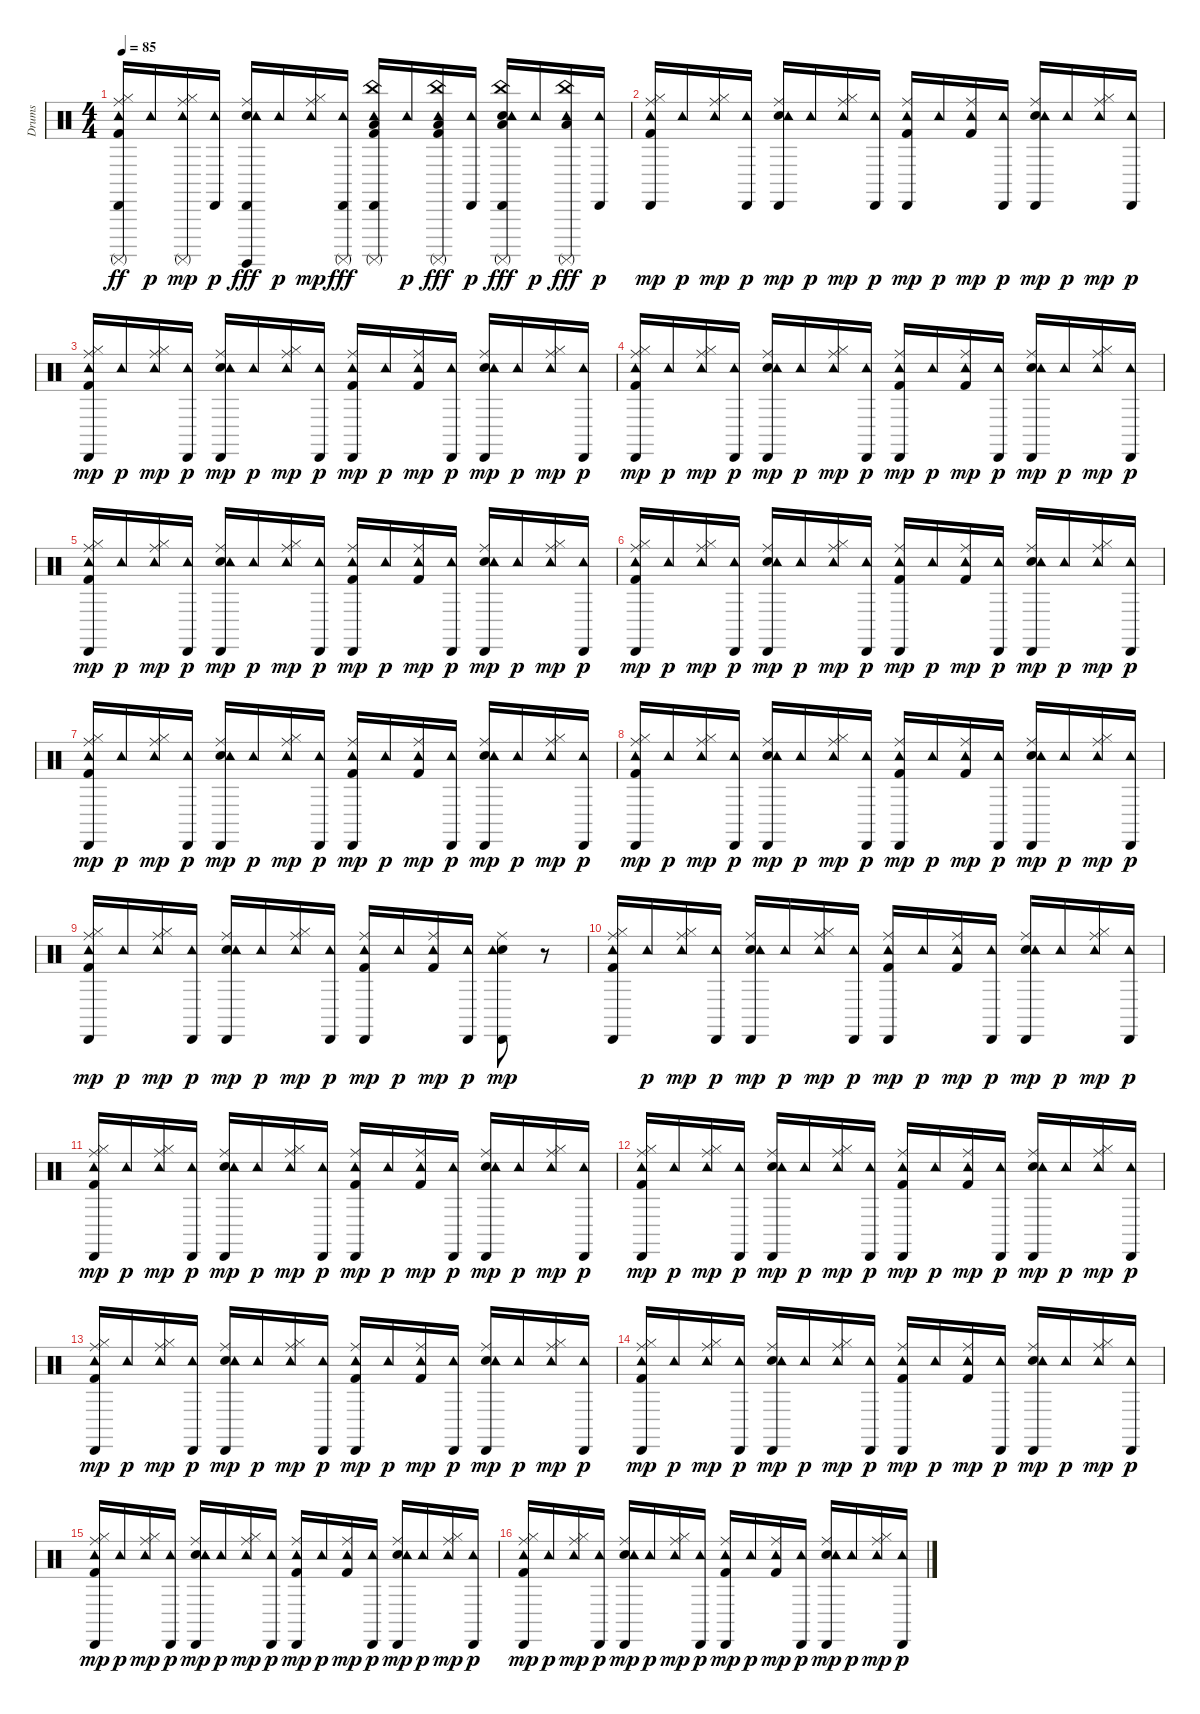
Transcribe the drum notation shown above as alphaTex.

\track ("Drums" "Drums") {instrument percussion}
\staff {score}
\articulation defaults
\ts (4 4)
\tempo 85
\clef neutral
\ks c
("Kick (hit) 2" "Hi-Hat (closed)" "Ride (middle)" "Tambourine (hit)" "Cabasa (hit)" "Surdo (mute)").16{dy ff} "Tambourine (hit)".16{dy p} ("Hi-Hat (closed)" "Ride (middle)" "Tambourine (hit)" "Surdo (mute)").16{dy mp} ("Cabasa (hit)" "Tambourine (hit)").16{dy p} ("Snare (hit) 2" "Ride (middle)" "Tambourine (hit)" "Cabasa (hit)" "Surdo (hit)").16{dy fff} "Tambourine (hit)".16{dy p} ("Hi-Hat (closed)" "Ride (middle)" "Tambourine (hit)").16{dy mp} ("Surdo (mute)" "Cabasa (hit)" "Tambourine (hit)").16{dy fff} ("Kick (hit) 2" "Low Floor Tom (hit)" "China (hit)" "Tambourine (hit)" "Cabasa (hit)" "Surdo (mute)").16 "Tambourine (hit)".16{dy p} ("Kick (hit) 2" "Low Floor Tom (hit)" "China (hit)" "Tambourine (hit)" "Surdo (mute)").16{dy fff} ("Cabasa (hit)" "Tambourine (hit)").16{dy p} ("Snare (hit) 2" "Low Floor Tom (hit)" "China (hit)" "Tambourine (hit)" "Cabasa (hit)" "Surdo (mute)").16{dy fff} "Tambourine (hit)".16{dy p} ("Low Floor Tom (hit)" "China (hit)" "Tambourine (hit)" "Surdo (mute)").16{dy fff} ("Cabasa (hit)" "Tambourine (hit)").16{dy p} |
("Kick (hit) 2" "Hi-Hat (closed)" "Ride (middle)" "Tambourine (hit)" "Cabasa (hit)").16{dy mp} "Tambourine (hit)".16{dy p} ("Hi-Hat (closed)" "Ride (middle)" "Tambourine (hit)").16{dy mp} ("Cabasa (hit)" "Tambourine (hit)").16{dy p} ("Snare (hit) 2" "Ride (middle)" "Tambourine (hit)" "Cabasa (hit)").16{dy mp} "Tambourine (hit)".16{dy p} ("Hi-Hat (closed)" "Ride (middle)" "Tambourine (hit)").16{dy mp} ("Cabasa (hit)" "Tambourine (hit)").16{dy p} ("Kick (hit) 2" "Ride (middle)" "Tambourine (hit)" "Cabasa (hit)").16{dy mp} "Tambourine (hit)".16{dy p} ("Kick (hit) 2" "Ride (middle)" "Tambourine (hit)").16{dy mp} ("Cabasa (hit)" "Tambourine (hit)").16{dy p} ("Snare (hit) 2" "Ride (middle)" "Tambourine (hit)" "Cabasa (hit)").16{dy mp} "Tambourine (hit)".16{dy p} ("Hi-Hat (closed)" "Ride (middle)" "Tambourine (hit)").16{dy mp} ("Cabasa (hit)" "Tambourine (hit)").16{dy p} |
("Kick (hit) 2" "Hi-Hat (closed)" "Ride (middle)" "Tambourine (hit)" "Cabasa (hit)").16{dy mp} "Tambourine (hit)".16{dy p} ("Hi-Hat (closed)" "Ride (middle)" "Tambourine (hit)").16{dy mp} ("Cabasa (hit)" "Tambourine (hit)").16{dy p} ("Snare (hit) 2" "Ride (middle)" "Tambourine (hit)" "Cabasa (hit)").16{dy mp} "Tambourine (hit)".16{dy p} ("Hi-Hat (closed)" "Ride (middle)" "Tambourine (hit)").16{dy mp} ("Cabasa (hit)" "Tambourine (hit)").16{dy p} ("Kick (hit) 2" "Ride (middle)" "Tambourine (hit)" "Cabasa (hit)").16{dy mp} "Tambourine (hit)".16{dy p} ("Kick (hit) 2" "Ride (middle)" "Tambourine (hit)").16{dy mp} ("Cabasa (hit)" "Tambourine (hit)").16{dy p} ("Snare (hit) 2" "Ride (middle)" "Tambourine (hit)" "Cabasa (hit)").16{dy mp} "Tambourine (hit)".16{dy p} ("Hi-Hat (closed)" "Ride (middle)" "Tambourine (hit)").16{dy mp} ("Cabasa (hit)" "Tambourine (hit)").16{dy p} |
("Kick (hit) 2" "Hi-Hat (closed)" "Ride (middle)" "Tambourine (hit)" "Cabasa (hit)").16{dy mp} "Tambourine (hit)".16{dy p} ("Hi-Hat (closed)" "Ride (middle)" "Tambourine (hit)").16{dy mp} ("Cabasa (hit)" "Tambourine (hit)").16{dy p} ("Snare (hit) 2" "Ride (middle)" "Tambourine (hit)" "Cabasa (hit)").16{dy mp} "Tambourine (hit)".16{dy p} ("Hi-Hat (closed)" "Ride (middle)" "Tambourine (hit)").16{dy mp} ("Cabasa (hit)" "Tambourine (hit)").16{dy p} ("Kick (hit) 2" "Ride (middle)" "Tambourine (hit)" "Cabasa (hit)").16{dy mp} "Tambourine (hit)".16{dy p} ("Kick (hit) 2" "Ride (middle)" "Tambourine (hit)").16{dy mp} ("Cabasa (hit)" "Tambourine (hit)").16{dy p} ("Snare (hit) 2" "Ride (middle)" "Tambourine (hit)" "Cabasa (hit)").16{dy mp} "Tambourine (hit)".16{dy p} ("Hi-Hat (closed)" "Ride (middle)" "Tambourine (hit)").16{dy mp} ("Cabasa (hit)" "Tambourine (hit)").16{dy p} |
("Kick (hit) 2" "Hi-Hat (closed)" "Ride (middle)" "Tambourine (hit)" "Cabasa (hit)").16{dy mp} "Tambourine (hit)".16{dy p} ("Hi-Hat (closed)" "Ride (middle)" "Tambourine (hit)").16{dy mp} ("Cabasa (hit)" "Tambourine (hit)").16{dy p} ("Snare (hit) 2" "Ride (middle)" "Tambourine (hit)" "Cabasa (hit)").16{dy mp} "Tambourine (hit)".16{dy p} ("Hi-Hat (closed)" "Ride (middle)" "Tambourine (hit)").16{dy mp} ("Cabasa (hit)" "Tambourine (hit)").16{dy p} ("Kick (hit) 2" "Ride (middle)" "Tambourine (hit)" "Cabasa (hit)").16{dy mp} "Tambourine (hit)".16{dy p} ("Kick (hit) 2" "Ride (middle)" "Tambourine (hit)").16{dy mp} ("Cabasa (hit)" "Tambourine (hit)").16{dy p} ("Snare (hit) 2" "Ride (middle)" "Tambourine (hit)" "Cabasa (hit)").16{dy mp} "Tambourine (hit)".16{dy p} ("Hi-Hat (closed)" "Ride (middle)" "Tambourine (hit)").16{dy mp} ("Cabasa (hit)" "Tambourine (hit)").16{dy p} |
("Kick (hit) 2" "Hi-Hat (closed)" "Ride (middle)" "Tambourine (hit)" "Cabasa (hit)").16{dy mp} "Tambourine (hit)".16{dy p} ("Hi-Hat (closed)" "Ride (middle)" "Tambourine (hit)").16{dy mp} ("Cabasa (hit)" "Tambourine (hit)").16{dy p} ("Snare (hit) 2" "Ride (middle)" "Tambourine (hit)" "Cabasa (hit)").16{dy mp} "Tambourine (hit)".16{dy p} ("Hi-Hat (closed)" "Ride (middle)" "Tambourine (hit)").16{dy mp} ("Cabasa (hit)" "Tambourine (hit)").16{dy p} ("Kick (hit) 2" "Ride (middle)" "Tambourine (hit)" "Cabasa (hit)").16{dy mp} "Tambourine (hit)".16{dy p} ("Kick (hit) 2" "Ride (middle)" "Tambourine (hit)").16{dy mp} ("Cabasa (hit)" "Tambourine (hit)").16{dy p} ("Snare (hit) 2" "Ride (middle)" "Tambourine (hit)" "Cabasa (hit)").16{dy mp} "Tambourine (hit)".16{dy p} ("Hi-Hat (closed)" "Ride (middle)" "Tambourine (hit)").16{dy mp} ("Cabasa (hit)" "Tambourine (hit)").16{dy p} |
("Kick (hit) 2" "Hi-Hat (closed)" "Ride (middle)" "Tambourine (hit)" "Cabasa (hit)").16{dy mp} "Tambourine (hit)".16{dy p} ("Hi-Hat (closed)" "Ride (middle)" "Tambourine (hit)").16{dy mp} ("Cabasa (hit)" "Tambourine (hit)").16{dy p} ("Snare (hit) 2" "Ride (middle)" "Tambourine (hit)" "Cabasa (hit)").16{dy mp} "Tambourine (hit)".16{dy p} ("Hi-Hat (closed)" "Ride (middle)" "Tambourine (hit)").16{dy mp} ("Cabasa (hit)" "Tambourine (hit)").16{dy p} ("Kick (hit) 2" "Ride (middle)" "Tambourine (hit)" "Cabasa (hit)").16{dy mp} "Tambourine (hit)".16{dy p} ("Kick (hit) 2" "Ride (middle)" "Tambourine (hit)").16{dy mp} ("Cabasa (hit)" "Tambourine (hit)").16{dy p} ("Snare (hit) 2" "Ride (middle)" "Tambourine (hit)" "Cabasa (hit)").16{dy mp} "Tambourine (hit)".16{dy p} ("Hi-Hat (closed)" "Ride (middle)" "Tambourine (hit)").16{dy mp} ("Cabasa (hit)" "Tambourine (hit)").16{dy p} |
("Kick (hit) 2" "Hi-Hat (closed)" "Ride (middle)" "Tambourine (hit)" "Cabasa (hit)").16{dy mp} "Tambourine (hit)".16{dy p} ("Hi-Hat (closed)" "Ride (middle)" "Tambourine (hit)").16{dy mp} ("Cabasa (hit)" "Tambourine (hit)").16{dy p} ("Snare (hit) 2" "Ride (middle)" "Tambourine (hit)" "Cabasa (hit)").16{dy mp} "Tambourine (hit)".16{dy p} ("Hi-Hat (closed)" "Ride (middle)" "Tambourine (hit)").16{dy mp} ("Cabasa (hit)" "Tambourine (hit)").16{dy p} ("Kick (hit) 2" "Ride (middle)" "Tambourine (hit)" "Cabasa (hit)").16{dy mp} "Tambourine (hit)".16{dy p} ("Kick (hit) 2" "Ride (middle)" "Tambourine (hit)").16{dy mp} ("Cabasa (hit)" "Tambourine (hit)").16{dy p} ("Snare (hit) 2" "Ride (middle)" "Tambourine (hit)" "Cabasa (hit)").16{dy mp} "Tambourine (hit)".16{dy p} ("Hi-Hat (closed)" "Ride (middle)" "Tambourine (hit)").16{dy mp} ("Cabasa (hit)" "Tambourine (hit)").16{dy p} |
("Kick (hit) 2" "Hi-Hat (closed)" "Ride (middle)" "Tambourine (hit)" "Cabasa (hit)").16{dy mp} "Tambourine (hit)".16{dy p} ("Hi-Hat (closed)" "Ride (middle)" "Tambourine (hit)").16{dy mp} ("Cabasa (hit)" "Tambourine (hit)").16{dy p} ("Snare (hit) 2" "Ride (middle)" "Tambourine (hit)" "Cabasa (hit)").16{dy mp} "Tambourine (hit)".16{dy p} ("Hi-Hat (closed)" "Ride (middle)" "Tambourine (hit)").16{dy mp} ("Cabasa (hit)" "Tambourine (hit)").16{dy p} ("Kick (hit) 2" "Ride (middle)" "Tambourine (hit)" "Cabasa (hit)").16{dy mp} "Tambourine (hit)".16{dy p} ("Kick (hit) 2" "Ride (middle)" "Tambourine (hit)").16{dy mp} ("Cabasa (hit)" "Tambourine (hit)").16{dy p} ("Snare (hit) 2" "Ride (middle)" "Tambourine (hit)" "Cabasa (hit)").8{dy mp} r.8 |
("Kick (hit) 2" "Hi-Hat (closed)" "Ride (middle)" "Tambourine (hit)" "Cabasa (hit)").16 "Tambourine (hit)".16{dy p} ("Hi-Hat (closed)" "Ride (middle)" "Tambourine (hit)").16{dy mp} ("Cabasa (hit)" "Tambourine (hit)").16{dy p} ("Snare (hit) 2" "Ride (middle)" "Tambourine (hit)" "Cabasa (hit)").16{dy mp} "Tambourine (hit)".16{dy p} ("Hi-Hat (closed)" "Ride (middle)" "Tambourine (hit)").16{dy mp} ("Cabasa (hit)" "Tambourine (hit)").16{dy p} ("Kick (hit) 2" "Ride (middle)" "Tambourine (hit)" "Cabasa (hit)").16{dy mp} "Tambourine (hit)".16{dy p} ("Kick (hit) 2" "Ride (middle)" "Tambourine (hit)").16{dy mp} ("Cabasa (hit)" "Tambourine (hit)").16{dy p} ("Snare (hit) 2" "Ride (middle)" "Tambourine (hit)" "Cabasa (hit)").16{dy mp} "Tambourine (hit)".16{dy p} ("Hi-Hat (closed)" "Ride (middle)" "Tambourine (hit)").16{dy mp} ("Cabasa (hit)" "Tambourine (hit)").16{dy p} |
("Kick (hit) 2" "Hi-Hat (closed)" "Ride (middle)" "Tambourine (hit)" "Cabasa (hit)").16{dy mp} "Tambourine (hit)".16{dy p} ("Hi-Hat (closed)" "Ride (middle)" "Tambourine (hit)").16{dy mp} ("Cabasa (hit)" "Tambourine (hit)").16{dy p} ("Snare (hit) 2" "Ride (middle)" "Tambourine (hit)" "Cabasa (hit)").16{dy mp} "Tambourine (hit)".16{dy p} ("Hi-Hat (closed)" "Ride (middle)" "Tambourine (hit)").16{dy mp} ("Cabasa (hit)" "Tambourine (hit)").16{dy p} ("Kick (hit) 2" "Ride (middle)" "Tambourine (hit)" "Cabasa (hit)").16{dy mp} "Tambourine (hit)".16{dy p} ("Kick (hit) 2" "Ride (middle)" "Tambourine (hit)").16{dy mp} ("Cabasa (hit)" "Tambourine (hit)").16{dy p} ("Snare (hit) 2" "Ride (middle)" "Tambourine (hit)" "Cabasa (hit)").16{dy mp} "Tambourine (hit)".16{dy p} ("Hi-Hat (closed)" "Ride (middle)" "Tambourine (hit)").16{dy mp} ("Cabasa (hit)" "Tambourine (hit)").16{dy p} |
("Kick (hit) 2" "Hi-Hat (closed)" "Ride (middle)" "Tambourine (hit)" "Cabasa (hit)").16{dy mp} "Tambourine (hit)".16{dy p} ("Hi-Hat (closed)" "Ride (middle)" "Tambourine (hit)").16{dy mp} ("Cabasa (hit)" "Tambourine (hit)").16{dy p} ("Snare (hit) 2" "Ride (middle)" "Tambourine (hit)" "Cabasa (hit)").16{dy mp} "Tambourine (hit)".16{dy p} ("Hi-Hat (closed)" "Ride (middle)" "Tambourine (hit)").16{dy mp} ("Cabasa (hit)" "Tambourine (hit)").16{dy p} ("Kick (hit) 2" "Ride (middle)" "Tambourine (hit)" "Cabasa (hit)").16{dy mp} "Tambourine (hit)".16{dy p} ("Kick (hit) 2" "Ride (middle)" "Tambourine (hit)").16{dy mp} ("Cabasa (hit)" "Tambourine (hit)").16{dy p} ("Snare (hit) 2" "Ride (middle)" "Tambourine (hit)" "Cabasa (hit)").16{dy mp} "Tambourine (hit)".16{dy p} ("Hi-Hat (closed)" "Ride (middle)" "Tambourine (hit)").16{dy mp} ("Cabasa (hit)" "Tambourine (hit)").16{dy p} |
("Kick (hit) 2" "Hi-Hat (closed)" "Ride (middle)" "Tambourine (hit)" "Cabasa (hit)").16{dy mp} "Tambourine (hit)".16{dy p} ("Hi-Hat (closed)" "Ride (middle)" "Tambourine (hit)").16{dy mp} ("Cabasa (hit)" "Tambourine (hit)").16{dy p} ("Snare (hit) 2" "Ride (middle)" "Tambourine (hit)" "Cabasa (hit)").16{dy mp} "Tambourine (hit)".16{dy p} ("Hi-Hat (closed)" "Ride (middle)" "Tambourine (hit)").16{dy mp} ("Cabasa (hit)" "Tambourine (hit)").16{dy p} ("Kick (hit) 2" "Ride (middle)" "Tambourine (hit)" "Cabasa (hit)").16{dy mp} "Tambourine (hit)".16{dy p} ("Kick (hit) 2" "Ride (middle)" "Tambourine (hit)").16{dy mp} ("Cabasa (hit)" "Tambourine (hit)").16{dy p} ("Snare (hit) 2" "Ride (middle)" "Tambourine (hit)" "Cabasa (hit)").16{dy mp} "Tambourine (hit)".16{dy p} ("Hi-Hat (closed)" "Ride (middle)" "Tambourine (hit)").16{dy mp} ("Cabasa (hit)" "Tambourine (hit)").16{dy p} |
("Kick (hit) 2" "Hi-Hat (closed)" "Ride (middle)" "Tambourine (hit)" "Cabasa (hit)").16{dy mp} "Tambourine (hit)".16{dy p} ("Hi-Hat (closed)" "Ride (middle)" "Tambourine (hit)").16{dy mp} ("Cabasa (hit)" "Tambourine (hit)").16{dy p} ("Snare (hit) 2" "Ride (middle)" "Tambourine (hit)" "Cabasa (hit)").16{dy mp} "Tambourine (hit)".16{dy p} ("Hi-Hat (closed)" "Ride (middle)" "Tambourine (hit)").16{dy mp} ("Cabasa (hit)" "Tambourine (hit)").16{dy p} ("Kick (hit) 2" "Ride (middle)" "Tambourine (hit)" "Cabasa (hit)").16{dy mp} "Tambourine (hit)".16{dy p} ("Kick (hit) 2" "Ride (middle)" "Tambourine (hit)").16{dy mp} ("Cabasa (hit)" "Tambourine (hit)").16{dy p} ("Snare (hit) 2" "Ride (middle)" "Tambourine (hit)" "Cabasa (hit)").16{dy mp} "Tambourine (hit)".16{dy p} ("Hi-Hat (closed)" "Ride (middle)" "Tambourine (hit)").16{dy mp} ("Cabasa (hit)" "Tambourine (hit)").16{dy p} |
("Kick (hit) 2" "Hi-Hat (closed)" "Ride (middle)" "Tambourine (hit)" "Cabasa (hit)").16{dy mp} "Tambourine (hit)".16{dy p} ("Hi-Hat (closed)" "Ride (middle)" "Tambourine (hit)").16{dy mp} ("Cabasa (hit)" "Tambourine (hit)").16{dy p} ("Snare (hit) 2" "Ride (middle)" "Tambourine (hit)" "Cabasa (hit)").16{dy mp} "Tambourine (hit)".16{dy p} ("Hi-Hat (closed)" "Ride (middle)" "Tambourine (hit)").16{dy mp} ("Cabasa (hit)" "Tambourine (hit)").16{dy p} ("Kick (hit) 2" "Ride (middle)" "Tambourine (hit)" "Cabasa (hit)").16{dy mp} "Tambourine (hit)".16{dy p} ("Kick (hit) 2" "Ride (middle)" "Tambourine (hit)").16{dy mp} ("Cabasa (hit)" "Tambourine (hit)").16{dy p} ("Snare (hit) 2" "Ride (middle)" "Tambourine (hit)" "Cabasa (hit)").16{dy mp} "Tambourine (hit)".16{dy p} ("Hi-Hat (closed)" "Ride (middle)" "Tambourine (hit)").16{dy mp} ("Cabasa (hit)" "Tambourine (hit)").16{dy p} |
("Kick (hit) 2" "Hi-Hat (closed)" "Ride (middle)" "Tambourine (hit)" "Cabasa (hit)").16{dy mp} "Tambourine (hit)".16{dy p} ("Hi-Hat (closed)" "Ride (middle)" "Tambourine (hit)").16{dy mp} ("Cabasa (hit)" "Tambourine (hit)").16{dy p} ("Snare (hit) 2" "Ride (middle)" "Tambourine (hit)" "Cabasa (hit)").16{dy mp} "Tambourine (hit)".16{dy p} ("Hi-Hat (closed)" "Ride (middle)" "Tambourine (hit)").16{dy mp} ("Cabasa (hit)" "Tambourine (hit)").16{dy p} ("Kick (hit) 2" "Ride (middle)" "Tambourine (hit)" "Cabasa (hit)").16{dy mp} "Tambourine (hit)".16{dy p} ("Kick (hit) 2" "Ride (middle)" "Tambourine (hit)").16{dy mp} ("Cabasa (hit)" "Tambourine (hit)").16{dy p} ("Snare (hit) 2" "Ride (middle)" "Tambourine (hit)" "Cabasa (hit)").16{dy mp} "Tambourine (hit)".16{dy p} ("Hi-Hat (closed)" "Ride (middle)" "Tambourine (hit)").16{dy mp} ("Cabasa (hit)" "Tambourine (hit)").16{dy p}
